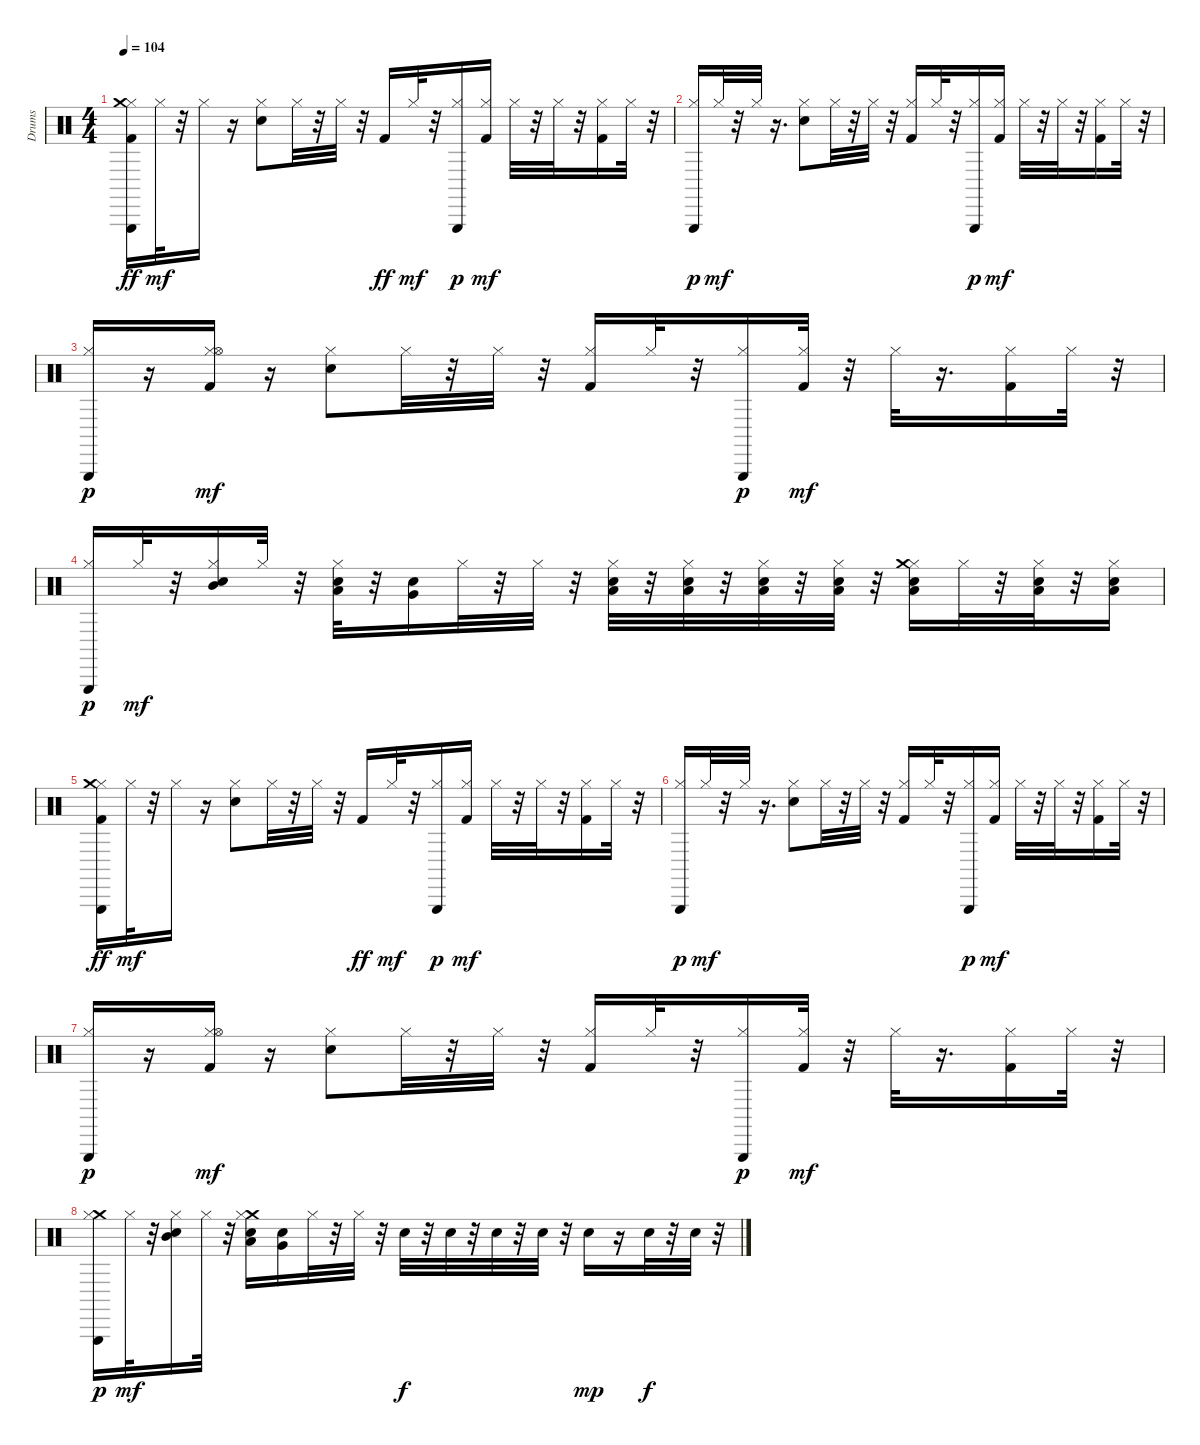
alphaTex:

\track ("Drums" "Drums") {instrument percussion}
\staff {score}
\articulation defaults
\ts (4 4)
\tempo 104
\clef neutral
\ks c
("Kick (hit) 2" "Hi-Hat (closed)" "Triangle (hit)" "Crash medium (hit)").16{dy ff} "Hi-Hat (closed)".32{dy mf} r.32 "Hi-Hat (closed)".16 r.16 ("Hi-Hat (closed)" "Snare (hit) 2").8 "Hi-Hat (closed)".32 r.32 "Hi-Hat (closed)".32 r.32 "Kick (hit) 2".16{dy ff} "Hi-Hat (closed)".32{dy mf} r.32 ("Hi-Hat (closed)" "Triangle (hit)").16{dy p} ("Kick (hit) 2" "Hi-Hat (closed)").16{dy mf} "Hi-Hat (closed)".32 r.32 "Hi-Hat (closed)".32 r.32 ("Kick (hit) 2" "Hi-Hat (closed)").16 "Hi-Hat (closed)".32 r.32 |
("Hi-Hat (closed)" "Triangle (hit)").16{dy p} "Hi-Hat (closed)".32{dy mf} r.32 "Hi-Hat (closed)".32 r.16{d} ("Hi-Hat (closed)" "Snare (hit) 2").8 "Hi-Hat (closed)".32 r.32 "Hi-Hat (closed)".32 r.32 ("Kick (hit) 2" "Hi-Hat (closed)").16 "Hi-Hat (closed)".32 r.32 ("Hi-Hat (closed)" "Triangle (hit)").16{dy p} ("Kick (hit) 2" "Hi-Hat (closed)").16{dy mf} "Hi-Hat (closed)".32 r.32 "Hi-Hat (closed)".32 r.32 ("Kick (hit) 2" "Hi-Hat (closed)").16 "Hi-Hat (closed)".32 r.32 |
("Hi-Hat (closed)" "Triangle (hit)").16{dy p} r.16 ("Kick (hit) 2" "Hi-Hat (closed)" "Hi-Hat (open)").16{dy mf} r.16 ("Hi-Hat (closed)" "Snare (hit) 2").8 "Hi-Hat (closed)".32 r.32 "Hi-Hat (closed)".32 r.32 ("Kick (hit) 2" "Hi-Hat (closed)").16 "Hi-Hat (closed)".32 r.32 ("Hi-Hat (closed)" "Triangle (hit)").16{dy p} ("Kick (hit) 2" "Hi-Hat (closed)").32{dy mf} r.32 "Hi-Hat (closed)".32 r.16{d} ("Kick (hit) 2" "Hi-Hat (closed)").16 "Hi-Hat (closed)".32 r.32 |
("Hi-Hat (closed)" "Triangle (hit)").16{dy p} "Hi-Hat (closed)".32{dy mf} r.32 ("Hi-Hat (closed)" "Snare (hit) 2" "Mid Tom (hit)").16 "Hi-Hat (closed)".32 r.32 ("Hi-Hat (closed)" "Snare (hit) 2" "Low Tom (hit)").32 r.32 ("Snare (hit) 2" "Very Low Tom (hit)").16 "Hi-Hat (closed)".32 r.32 "Hi-Hat (closed)".32 r.32 ("Hi-Hat (closed)" "Snare (hit) 2" "Low Floor Tom (hit)").32 r.32 ("Hi-Hat (closed)" "Snare (hit) 2" "Low Floor Tom (hit)").32 r.32 ("Hi-Hat (closed)" "Snare (hit) 2" "Low Floor Tom (hit)").32 r.32 ("Hi-Hat (closed)" "Snare (hit) 2" "Low Floor Tom (hit)").32 r.32 ("Hi-Hat (closed)" "Snare (hit) 2" "Low Floor Tom (hit)" "Crash medium (hit)").16 "Hi-Hat (closed)".32 r.32 ("Hi-Hat (closed)" "Snare (hit) 2" "Low Floor Tom (hit)").32 r.32 ("Hi-Hat (closed)" "Snare (hit) 2" "Low Floor Tom (hit)").16 |
("Kick (hit) 2" "Hi-Hat (closed)" "Triangle (hit)" "Crash medium (hit)").16{dy ff} "Hi-Hat (closed)".32{dy mf} r.32 "Hi-Hat (closed)".16 r.16 ("Hi-Hat (closed)" "Snare (hit) 2").8 "Hi-Hat (closed)".32 r.32 "Hi-Hat (closed)".32 r.32 "Kick (hit) 2".16{dy ff} "Hi-Hat (closed)".32{dy mf} r.32 ("Hi-Hat (closed)" "Triangle (hit)").16{dy p} ("Kick (hit) 2" "Hi-Hat (closed)").16{dy mf} "Hi-Hat (closed)".32 r.32 "Hi-Hat (closed)".32 r.32 ("Kick (hit) 2" "Hi-Hat (closed)").16 "Hi-Hat (closed)".32 r.32 |
("Hi-Hat (closed)" "Triangle (hit)").16{dy p} "Hi-Hat (closed)".32{dy mf} r.32 "Hi-Hat (closed)".32 r.16{d} ("Hi-Hat (closed)" "Snare (hit) 2").8 "Hi-Hat (closed)".32 r.32 "Hi-Hat (closed)".32 r.32 ("Kick (hit) 2" "Hi-Hat (closed)").16 "Hi-Hat (closed)".32 r.32 ("Hi-Hat (closed)" "Triangle (hit)").16{dy p} ("Kick (hit) 2" "Hi-Hat (closed)").16{dy mf} "Hi-Hat (closed)".32 r.32 "Hi-Hat (closed)".32 r.32 ("Kick (hit) 2" "Hi-Hat (closed)").16 "Hi-Hat (closed)".32 r.32 |
("Hi-Hat (closed)" "Triangle (hit)").16{dy p} r.16 ("Kick (hit) 2" "Hi-Hat (closed)" "Hi-Hat (open)").16{dy mf} r.16 ("Hi-Hat (closed)" "Snare (hit) 2").8 "Hi-Hat (closed)".32 r.32 "Hi-Hat (closed)".32 r.32 ("Kick (hit) 2" "Hi-Hat (closed)").16 "Hi-Hat (closed)".32 r.32 ("Hi-Hat (closed)" "Triangle (hit)").16{dy p} ("Kick (hit) 2" "Hi-Hat (closed)").32{dy mf} r.32 "Hi-Hat (closed)".32 r.16{d} ("Kick (hit) 2" "Hi-Hat (closed)").16 "Hi-Hat (closed)".32 r.32 |
("Crash medium (hit)" "Hi-Hat (closed)" "Triangle (hit)").16{dy p} "Hi-Hat (closed)".32{dy mf} r.32 ("Hi-Hat (closed)" "Snare (hit) 2" "Mid Tom (hit)").16 "Hi-Hat (closed)".32 r.32 ("Crash medium (hit)" "Hi-Hat (closed)" "Snare (hit) 2" "Low Tom (hit)").16 ("Snare (hit) 2" "Very Low Tom (hit)").16 "Hi-Hat (closed)".32 r.32 "Hi-Hat (closed)".32 r.32 "Snare (hit) 2".32{dy f} r.32 "Snare (hit) 2".32 r.32 "Snare (hit) 2".32 r.32 "Snare (hit) 2".32 r.32 "Snare (hit) 2".16{dy mp} r.16 "Snare (hit) 2".32{dy f} r.32 "Snare (hit) 2".32 r.32
